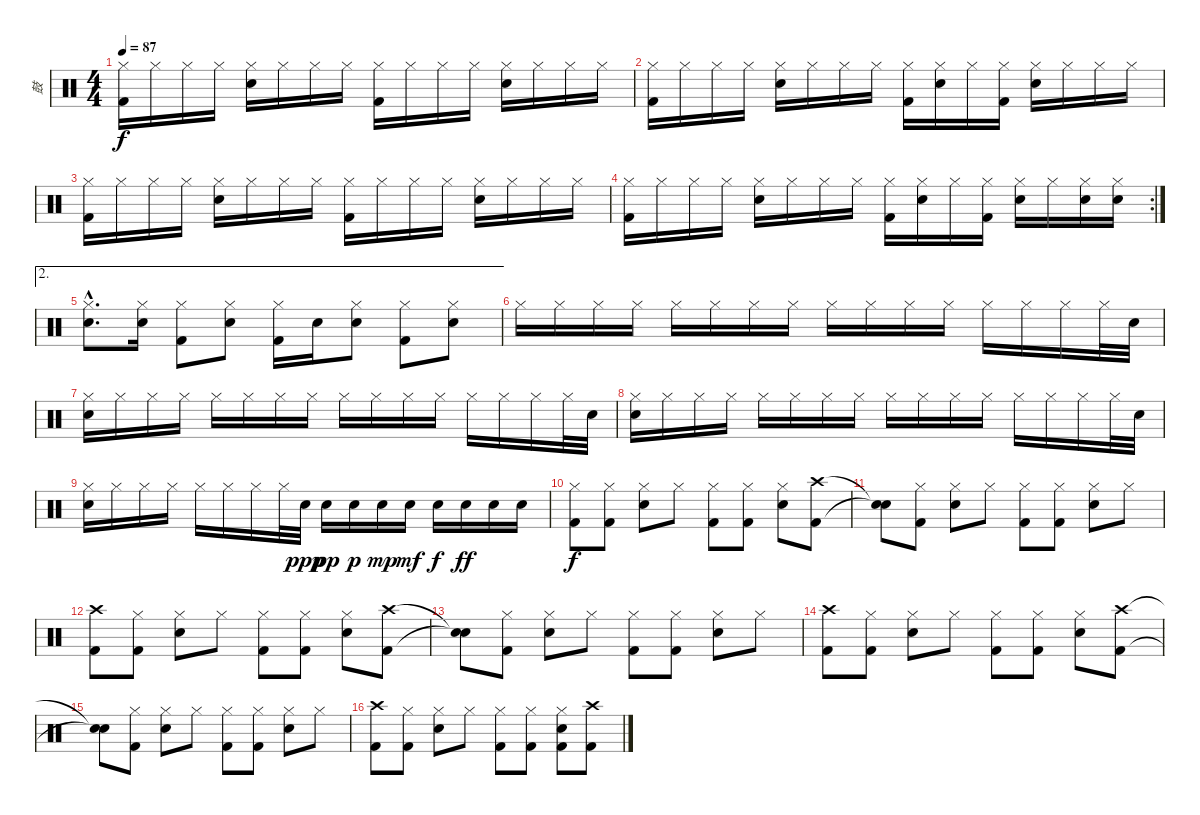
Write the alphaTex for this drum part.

\track ("鼓" "鼓") {instrument percussion}
\staff {score}
\articulation defaults
\ts (4 4)
\tempo 87
\clef neutral
\ks c
("Hi-Hat (closed)" "Kick (hit) 2").16{dy f} "Hi-Hat (closed)".16 "Hi-Hat (closed)".16 "Hi-Hat (closed)".16 ("Hi-Hat (closed)" "Snare (hit) 2").16 "Hi-Hat (closed)".16 "Hi-Hat (closed)".16 "Hi-Hat (closed)".16 ("Hi-Hat (closed)" "Kick (hit) 2").16 "Hi-Hat (closed)".16 "Hi-Hat (closed)".16 "Hi-Hat (closed)".16 ("Hi-Hat (closed)" "Snare (hit) 2").16 "Hi-Hat (closed)".16 "Hi-Hat (closed)".16 "Hi-Hat (closed)".16 |
("Hi-Hat (closed)" "Kick (hit) 2").16 "Hi-Hat (closed)".16 "Hi-Hat (closed)".16 "Hi-Hat (closed)".16 ("Hi-Hat (closed)" "Snare (hit) 2").16 "Hi-Hat (closed)".16 "Hi-Hat (closed)".16 "Hi-Hat (closed)".16 ("Hi-Hat (closed)" "Kick (hit) 2").16 ("Hi-Hat (closed)" "Snare (hit) 2").16 "Hi-Hat (closed)".16 ("Hi-Hat (closed)" "Kick (hit) 2").16 ("Hi-Hat (closed)" "Snare (hit) 2").16 "Hi-Hat (closed)".16 "Hi-Hat (closed)".16 "Hi-Hat (closed)".16 |
("Hi-Hat (closed)" "Kick (hit) 2").16 "Hi-Hat (closed)".16 "Hi-Hat (closed)".16 "Hi-Hat (closed)".16 ("Hi-Hat (closed)" "Snare (hit) 2").16 "Hi-Hat (closed)".16 "Hi-Hat (closed)".16 "Hi-Hat (closed)".16 ("Hi-Hat (closed)" "Kick (hit) 2").16 "Hi-Hat (closed)".16 "Hi-Hat (closed)".16 "Hi-Hat (closed)".16 ("Hi-Hat (closed)" "Snare (hit) 2").16 "Hi-Hat (closed)".16 "Hi-Hat (closed)".16 "Hi-Hat (closed)".16 |
\rc 2
("Hi-Hat (closed)" "Kick (hit) 2").16 "Hi-Hat (closed)".16 "Hi-Hat (closed)".16 "Hi-Hat (closed)".16 ("Hi-Hat (closed)" "Snare (hit) 2").16 "Hi-Hat (closed)".16 "Hi-Hat (closed)".16 "Hi-Hat (closed)".16 ("Hi-Hat (closed)" "Kick (hit) 2").16 ("Hi-Hat (closed)" "Snare (hit) 2").16 "Hi-Hat (closed)".16 ("Hi-Hat (closed)" "Kick (hit) 2").16 ("Hi-Hat (closed)" "Snare (hit) 2").16 "Hi-Hat (closed)".16 ("Hi-Hat (closed)" "Snare (hit) 2").16 ("Hi-Hat (closed)" "Snare (hit) 2").16 |
\ae 2
("Hi-Hat (closed)"{hac} "Snare (hit) 2"{hac}).8{d} ("Hi-Hat (closed)" "Snare (hit) 2").16 ("Hi-Hat (closed)" "Kick (hit) 2").8 ("Hi-Hat (closed)" "Snare (hit) 2").8 ("Hi-Hat (closed)" "Kick (hit) 2").16 "Snare (hit) 2".16 ("Hi-Hat (closed)" "Snare (hit) 2").8 ("Hi-Hat (closed)" "Kick (hit) 2").8 ("Hi-Hat (closed)" "Snare (hit) 2").8 |
"Hi-Hat (closed)".16 "Hi-Hat (closed)".16 "Hi-Hat (closed)".16 "Hi-Hat (closed)".16 "Hi-Hat (closed)".16 "Hi-Hat (closed)".16 "Hi-Hat (closed)".16 "Hi-Hat (closed)".16 "Hi-Hat (closed)".16 "Hi-Hat (closed)".16 "Hi-Hat (closed)".16 "Hi-Hat (closed)".16 "Hi-Hat (closed)".16 "Hi-Hat (closed)".16 "Hi-Hat (closed)".16 "Hi-Hat (closed)".32 "Snare (hit) 2".32 |
("Hi-Hat (closed)" "Snare (hit) 2").16 "Hi-Hat (closed)".16 "Hi-Hat (closed)".16 "Hi-Hat (closed)".16 "Hi-Hat (closed)".16 "Hi-Hat (closed)".16 "Hi-Hat (closed)".16 "Hi-Hat (closed)".16 "Hi-Hat (closed)".16 "Hi-Hat (closed)".16 "Hi-Hat (closed)".16 "Hi-Hat (closed)".16 "Hi-Hat (closed)".16 "Hi-Hat (closed)".16 "Hi-Hat (closed)".16 "Hi-Hat (closed)".32 "Snare (hit) 2".32 |
("Hi-Hat (closed)" "Snare (hit) 2").16 "Hi-Hat (closed)".16 "Hi-Hat (closed)".16 "Hi-Hat (closed)".16 "Hi-Hat (closed)".16 "Hi-Hat (closed)".16 "Hi-Hat (closed)".16 "Hi-Hat (closed)".16 "Hi-Hat (closed)".16 "Hi-Hat (closed)".16 "Hi-Hat (closed)".16 "Hi-Hat (closed)".16 "Hi-Hat (closed)".16 "Hi-Hat (closed)".16 "Hi-Hat (closed)".16 "Hi-Hat (closed)".32 "Snare (hit) 2".32 |
("Hi-Hat (closed)" "Snare (hit) 2").16 "Hi-Hat (closed)".16 "Hi-Hat (closed)".16 "Hi-Hat (closed)".16 "Hi-Hat (closed)".16 "Hi-Hat (closed)".16 "Hi-Hat (closed)".16 "Hi-Hat (closed)".32 "Snare (hit) 2".32{dy ppp} "Snare (hit) 2".16{dy pp} "Snare (hit) 2".16{dy p} "Snare (hit) 2".16{dy mp} "Snare (hit) 2".16{dy mf} "Snare (hit) 2".16{dy f} "Snare (hit) 2".16{dy ff} "Snare (hit) 2".16 "Snare (hit) 2".16 |
("Hi-Hat (closed)" "Kick (hit) 2").8{dy f} ("Hi-Hat (closed)" "Kick (hit) 2").8 ("Hi-Hat (closed)" "Snare (hit) 2").8 "Hi-Hat (closed)".8 ("Hi-Hat (closed)" "Kick (hit) 2").8 ("Hi-Hat (closed)" "Kick (hit) 2").8 ("Hi-Hat (closed)" "Snare (hit) 2").8 ("Crash high (hit)" "Kick (hit) 2").8 |
("Snare (hit)"{t} "Snare (hit)"{t}).8 ("Hi-Hat (closed)" "Kick (hit) 2").8 ("Hi-Hat (closed)" "Snare (hit) 2").8 "Hi-Hat (closed)".8 ("Hi-Hat (closed)" "Kick (hit) 2").8 ("Hi-Hat (closed)" "Kick (hit) 2").8 ("Hi-Hat (closed)" "Snare (hit) 2").8 "Hi-Hat (closed)".8 |
("Crash high (hit)" "Kick (hit) 2").8 ("Hi-Hat (closed)" "Kick (hit) 2").8 ("Hi-Hat (closed)" "Snare (hit) 2").8 "Hi-Hat (closed)".8 ("Hi-Hat (closed)" "Kick (hit) 2").8 ("Hi-Hat (closed)" "Kick (hit) 2").8 ("Hi-Hat (closed)" "Snare (hit) 2").8 ("Crash high (hit)" "Kick (hit) 2").8 |
("Snare (hit)"{t} "Snare (hit)"{t}).8 ("Hi-Hat (closed)" "Kick (hit) 2").8 ("Hi-Hat (closed)" "Snare (hit) 2").8 "Hi-Hat (closed)".8 ("Hi-Hat (closed)" "Kick (hit) 2").8 ("Hi-Hat (closed)" "Kick (hit) 2").8 ("Hi-Hat (closed)" "Snare (hit) 2").8 "Hi-Hat (closed)".8 |
("Crash high (hit)" "Kick (hit) 2").8 ("Hi-Hat (closed)" "Kick (hit) 2").8 ("Hi-Hat (closed)" "Snare (hit) 2").8 "Hi-Hat (closed)".8 ("Hi-Hat (closed)" "Kick (hit) 2").8 ("Hi-Hat (closed)" "Kick (hit) 2").8 ("Hi-Hat (closed)" "Snare (hit) 2").8 ("Crash high (hit)" "Kick (hit) 2").8 |
("Snare (hit)"{t} "Snare (hit)"{t}).8 ("Hi-Hat (closed)" "Kick (hit) 2").8 ("Hi-Hat (closed)" "Snare (hit) 2").8 "Hi-Hat (closed)".8 ("Hi-Hat (closed)" "Kick (hit) 2").8 ("Hi-Hat (closed)" "Kick (hit) 2").8 ("Hi-Hat (closed)" "Snare (hit) 2").8 "Hi-Hat (closed)".8 |
("Crash high (hit)" "Kick (hit) 2").8 ("Hi-Hat (closed)" "Kick (hit) 2").8 ("Hi-Hat (closed)" "Snare (hit) 2").8 "Hi-Hat (closed)".8 ("Hi-Hat (closed)" "Kick (hit) 2").8 ("Hi-Hat (closed)" "Kick (hit) 2").8 ("Hi-Hat (closed)" "Snare (hit) 2" "Kick (hit) 2").8 ("Crash high (hit)" "Kick (hit) 2").8
